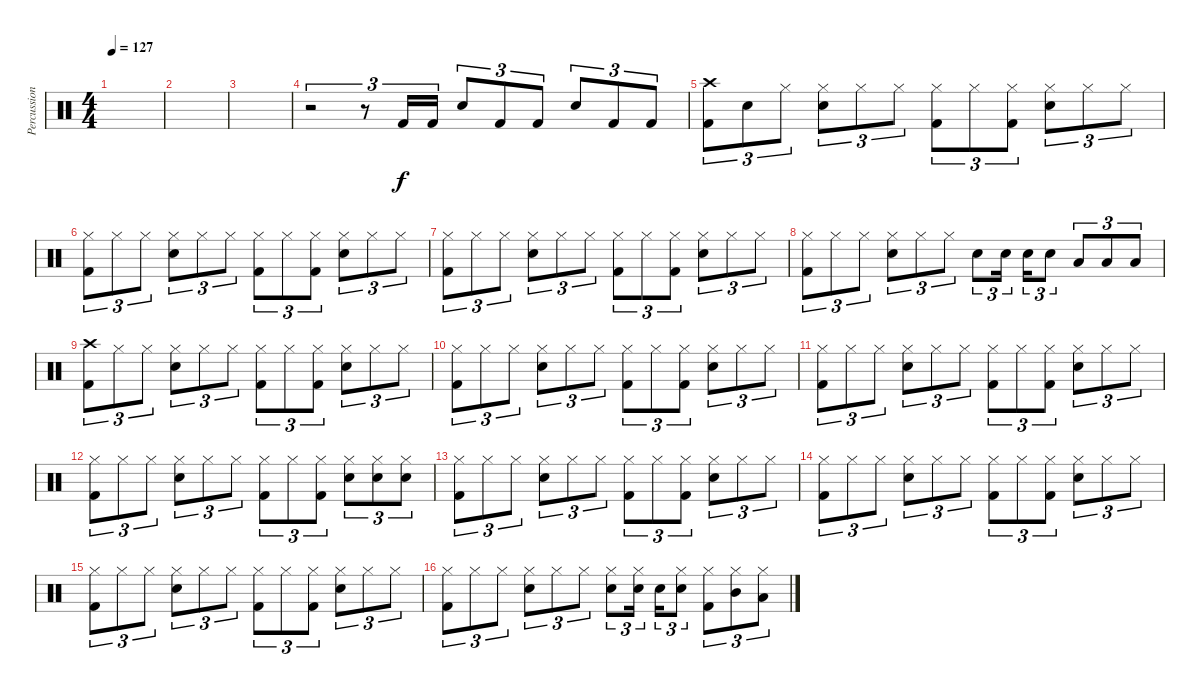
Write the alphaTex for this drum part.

\track ("Percussion" "Percussion") {instrument percussion}
\staff {score}
\articulation defaults
\ts (4 4)
\tempo 127
\clef neutral
\ks c
|
|
|
r.2{tu (3 2)} r.8{tu (3 2)} "Kick (hit) 2".16{tu (3 2)} "Kick (hit) 2".16{tu (3 2)} "Electric Snare (hit)".8{tu (3 2)} "Kick (hit) 2".8{tu (3 2)} "Kick (hit) 2".8{tu (3 2)} "Electric Snare (hit)".8{tu (3 2)} "Kick (hit) 2".8{tu (3 2)} "Kick (hit) 2".8{tu (3 2)} |
("Crash high (hit)" "Kick (hit) 2").8{tu (3 2)} "Snare (hit)".8{tu (3 2)} "Hi-Hat (closed)".8{tu (3 2)} ("Hi-Hat (closed)" "Electric Snare (hit)").8{tu (3 2)} "Hi-Hat (closed)".8{tu (3 2)} "Hi-Hat (closed)".8{tu (3 2)} ("Hi-Hat (closed)" "Kick (hit) 2").8{tu (3 2)} "Hi-Hat (closed)".8{tu (3 2)} ("Hi-Hat (closed)" "Kick (hit) 2").8{tu (3 2)} ("Hi-Hat (closed)" "Electric Snare (hit)").8{tu (3 2)} "Hi-Hat (closed)".8{tu (3 2)} "Hi-Hat (closed)".8{tu (3 2)} |
("Hi-Hat (closed)" "Kick (hit) 2").8{tu (3 2)} "Hi-Hat (closed)".8{tu (3 2)} "Hi-Hat (closed)".8{tu (3 2)} ("Hi-Hat (closed)" "Electric Snare (hit)").8{tu (3 2)} "Hi-Hat (closed)".8{tu (3 2)} "Hi-Hat (closed)".8{tu (3 2)} ("Hi-Hat (closed)" "Kick (hit) 2").8{tu (3 2)} "Hi-Hat (closed)".8{tu (3 2)} ("Hi-Hat (closed)" "Kick (hit) 2").8{tu (3 2)} ("Hi-Hat (closed)" "Electric Snare (hit)").8{tu (3 2)} "Hi-Hat (closed)".8{tu (3 2)} "Hi-Hat (closed)".8{tu (3 2)} |
("Hi-Hat (closed)" "Kick (hit) 2").8{tu (3 2)} "Hi-Hat (closed)".8{tu (3 2)} "Hi-Hat (closed)".8{tu (3 2)} ("Hi-Hat (closed)" "Electric Snare (hit)").8{tu (3 2)} "Hi-Hat (closed)".8{tu (3 2)} "Hi-Hat (closed)".8{tu (3 2)} ("Hi-Hat (closed)" "Kick (hit) 2").8{tu (3 2)} "Hi-Hat (closed)".8{tu (3 2)} ("Hi-Hat (closed)" "Kick (hit) 2").8{tu (3 2)} ("Hi-Hat (closed)" "Electric Snare (hit)").8{tu (3 2)} "Hi-Hat (closed)".8{tu (3 2)} "Hi-Hat (closed)".8{tu (3 2)} |
("Hi-Hat (closed)" "Kick (hit) 2").8{tu (3 2)} "Hi-Hat (closed)".8{tu (3 2)} "Hi-Hat (closed)".8{tu (3 2)} ("Hi-Hat (closed)" "Electric Snare (hit)").8{tu (3 2)} "Hi-Hat (closed)".8{tu (3 2)} "Hi-Hat (closed)".8{tu (3 2)} "Electric Snare (hit)".8{tu (3 2)} "Electric Snare (hit)".16{tu (3 2)} "Electric Snare (hit)".16{tu (3 2)} "Electric Snare (hit)".8{tu (3 2)} "Low Tom (hit)".8{tu (3 2)} "Low Tom (hit)".8{tu (3 2)} "Low Tom (hit)".8{tu (3 2)} |
("Crash high (hit)" "Kick (hit) 2").8{tu (3 2)} "Hi-Hat (closed)".8{tu (3 2)} "Hi-Hat (closed)".8{tu (3 2)} ("Hi-Hat (closed)" "Electric Snare (hit)").8{tu (3 2)} "Hi-Hat (closed)".8{tu (3 2)} "Hi-Hat (closed)".8{tu (3 2)} ("Hi-Hat (closed)" "Kick (hit) 2").8{tu (3 2)} "Hi-Hat (closed)".8{tu (3 2)} ("Hi-Hat (closed)" "Kick (hit) 2").8{tu (3 2)} ("Hi-Hat (closed)" "Electric Snare (hit)").8{tu (3 2)} "Hi-Hat (closed)".8{tu (3 2)} "Hi-Hat (closed)".8{tu (3 2)} |
("Hi-Hat (closed)" "Kick (hit) 2").8{tu (3 2)} "Hi-Hat (closed)".8{tu (3 2)} "Hi-Hat (closed)".8{tu (3 2)} ("Hi-Hat (closed)" "Electric Snare (hit)").8{tu (3 2)} "Hi-Hat (closed)".8{tu (3 2)} "Hi-Hat (closed)".8{tu (3 2)} ("Hi-Hat (closed)" "Kick (hit) 2").8{tu (3 2)} "Hi-Hat (closed)".8{tu (3 2)} ("Hi-Hat (closed)" "Kick (hit) 2").8{tu (3 2)} ("Hi-Hat (closed)" "Electric Snare (hit)").8{tu (3 2)} "Hi-Hat (closed)".8{tu (3 2)} "Hi-Hat (closed)".8{tu (3 2)} |
("Hi-Hat (closed)" "Kick (hit) 2").8{tu (3 2)} "Hi-Hat (closed)".8{tu (3 2)} "Hi-Hat (closed)".8{tu (3 2)} ("Hi-Hat (closed)" "Electric Snare (hit)").8{tu (3 2)} "Hi-Hat (closed)".8{tu (3 2)} "Hi-Hat (closed)".8{tu (3 2)} ("Hi-Hat (closed)" "Kick (hit) 2").8{tu (3 2)} "Hi-Hat (closed)".8{tu (3 2)} ("Hi-Hat (closed)" "Kick (hit) 2").8{tu (3 2)} ("Hi-Hat (closed)" "Electric Snare (hit)").8{tu (3 2)} "Hi-Hat (closed)".8{tu (3 2)} "Hi-Hat (closed)".8{tu (3 2)} |
("Hi-Hat (closed)" "Kick (hit) 2").8{tu (3 2)} "Hi-Hat (closed)".8{tu (3 2)} "Hi-Hat (closed)".8{tu (3 2)} ("Hi-Hat (closed)" "Electric Snare (hit)").8{tu (3 2)} "Hi-Hat (closed)".8{tu (3 2)} "Hi-Hat (closed)".8{tu (3 2)} ("Hi-Hat (closed)" "Kick (hit) 2").8{tu (3 2)} "Hi-Hat (closed)".8{tu (3 2)} ("Hi-Hat (closed)" "Kick (hit) 2").8{tu (3 2)} ("Hi-Hat (closed)" "Electric Snare (hit)").8{tu (3 2)} ("Hi-Hat (closed)" "Electric Snare (hit)").8{tu (3 2)} ("Hi-Hat (closed)" "Electric Snare (hit)").8{tu (3 2)} |
("Hi-Hat (closed)" "Kick (hit) 2").8{tu (3 2)} "Hi-Hat (closed)".8{tu (3 2)} "Hi-Hat (closed)".8{tu (3 2)} ("Hi-Hat (closed)" "Electric Snare (hit)").8{tu (3 2)} "Hi-Hat (closed)".8{tu (3 2)} "Hi-Hat (closed)".8{tu (3 2)} ("Hi-Hat (closed)" "Kick (hit) 2").8{tu (3 2)} "Hi-Hat (closed)".8{tu (3 2)} ("Hi-Hat (closed)" "Kick (hit) 2").8{tu (3 2)} ("Hi-Hat (closed)" "Electric Snare (hit)").8{tu (3 2)} "Hi-Hat (closed)".8{tu (3 2)} "Hi-Hat (closed)".8{tu (3 2)} |
("Hi-Hat (closed)" "Kick (hit) 2").8{tu (3 2)} "Hi-Hat (closed)".8{tu (3 2)} "Hi-Hat (closed)".8{tu (3 2)} ("Hi-Hat (closed)" "Electric Snare (hit)").8{tu (3 2)} "Hi-Hat (closed)".8{tu (3 2)} "Hi-Hat (closed)".8{tu (3 2)} ("Hi-Hat (closed)" "Kick (hit) 2").8{tu (3 2)} "Hi-Hat (closed)".8{tu (3 2)} ("Hi-Hat (closed)" "Kick (hit) 2").8{tu (3 2)} ("Hi-Hat (closed)" "Electric Snare (hit)").8{tu (3 2)} "Hi-Hat (closed)".8{tu (3 2)} "Hi-Hat (closed)".8{tu (3 2)} |
("Hi-Hat (closed)" "Kick (hit) 2").8{tu (3 2)} "Hi-Hat (closed)".8{tu (3 2)} "Hi-Hat (closed)".8{tu (3 2)} ("Hi-Hat (closed)" "Electric Snare (hit)").8{tu (3 2)} "Hi-Hat (closed)".8{tu (3 2)} "Hi-Hat (closed)".8{tu (3 2)} ("Hi-Hat (closed)" "Kick (hit) 2").8{tu (3 2)} "Hi-Hat (closed)".8{tu (3 2)} ("Hi-Hat (closed)" "Kick (hit) 2").8{tu (3 2)} ("Hi-Hat (closed)" "Electric Snare (hit)").8{tu (3 2)} "Hi-Hat (closed)".8{tu (3 2)} "Hi-Hat (closed)".8{tu (3 2)} |
("Hi-Hat (closed)" "Kick (hit) 2").8{tu (3 2)} "Hi-Hat (closed)".8{tu (3 2)} "Hi-Hat (closed)".8{tu (3 2)} ("Hi-Hat (closed)" "Electric Snare (hit)").8{tu (3 2)} "Hi-Hat (closed)".8{tu (3 2)} "Hi-Hat (closed)".8{tu (3 2)} ("Hi-Hat (closed)" "Electric Snare (hit)").8{tu (3 2)} ("Hi-Hat (closed)" "Electric Snare (hit)").16{tu (3 2)} "Electric Snare (hit)".16{tu (3 2)} ("Hi-Hat (closed)" "Electric Snare (hit)").8{tu (3 2)} ("Hi-Hat (closed)" "Kick (hit) 2").8{tu (3 2)} ("Hi-Hat (closed)" "Mid Tom (hit)").8{tu (3 2)} ("Hi-Hat (closed)" "Low Tom (hit)").8{tu (3 2)}
